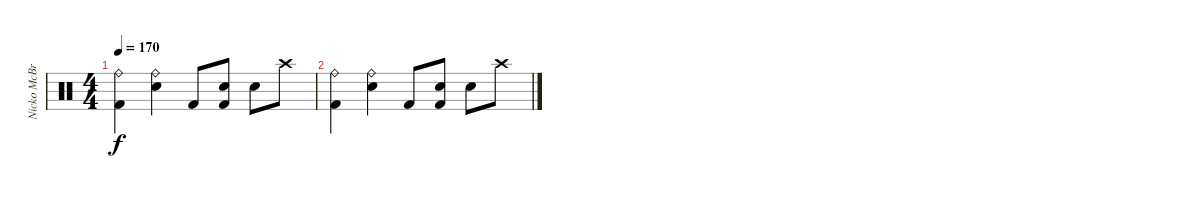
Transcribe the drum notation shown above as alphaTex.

\track ("Nicko McBrain" "Nicko McBr") {instrument percussion}
\staff {score}
\articulation defaults
\ts (4 4)
\tempo 170
\clef neutral
\ks c
("Ride (bell)" "Kick (hit) 2").4{dy f} ("Ride (bell)" "Snare (hit) 2").4 "Kick (hit) 2".8 ("Snare (hit) 2" "Kick (hit) 2").8 "Snare (hit) 2".8 "Crash high (hit)".8 |
("Ride (bell)" "Kick (hit) 2").4 ("Ride (bell)" "Snare (hit) 2").4 "Kick (hit) 2".8 ("Snare (hit) 2" "Kick (hit) 2").8 "Snare (hit) 2".8 "Crash high (hit)".8
